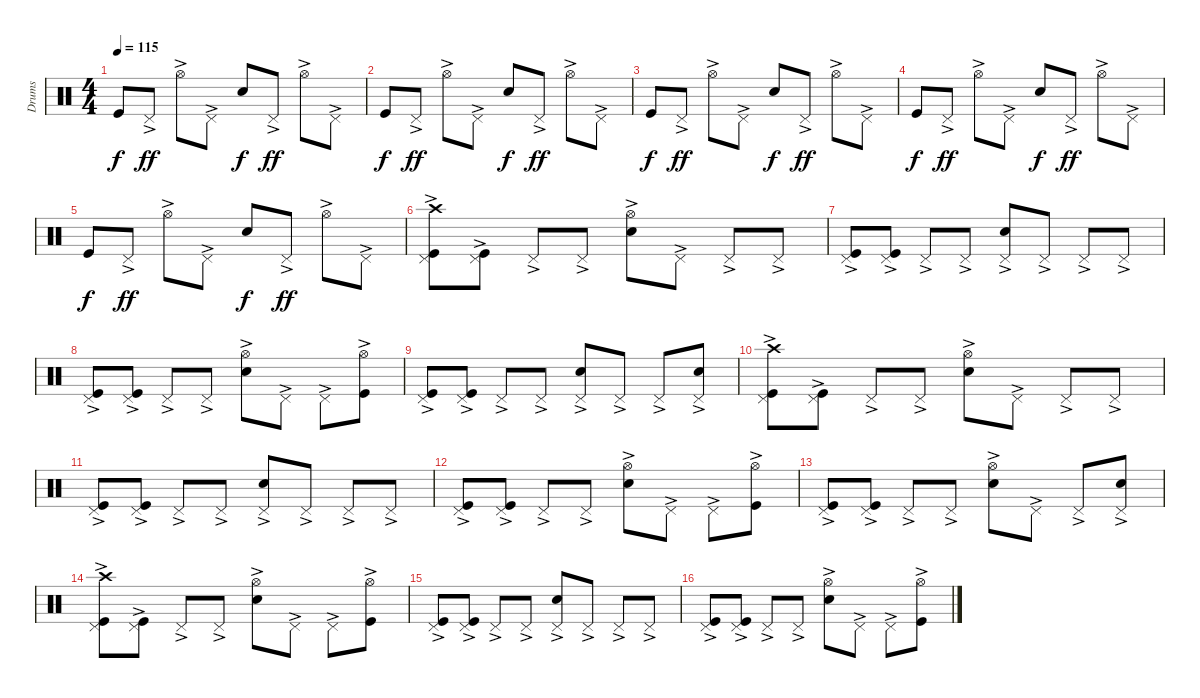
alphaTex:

\track ("Drums" "Drums") {instrument percussion}
\staff {score}
\articulation defaults
\ts (4 4)
\tempo 115
\clef neutral
\ks c "Kick (hit)".8{dy f} "Pedal Hi-Hat (hit)"{ac}.8{dy ff} "Hi-Hat (open)"{ac}.8 "Pedal Hi-Hat (hit)"{ac}.8 "Electric Snare (hit)".8{dy f} "Pedal Hi-Hat (hit)"{ac}.8{dy ff} "Hi-Hat (open)"{ac}.8 "Pedal Hi-Hat (hit)"{ac}.8
|
"Kick (hit)".8{dy f} "Pedal Hi-Hat (hit)"{ac}.8{dy ff} "Hi-Hat (open)"{ac}.8 "Pedal Hi-Hat (hit)"{ac}.8 "Electric Snare (hit)".8{dy f} "Pedal Hi-Hat (hit)"{ac}.8{dy ff} "Hi-Hat (open)"{ac}.8 "Pedal Hi-Hat (hit)"{ac}.8 |
"Kick (hit)".8{dy f} "Pedal Hi-Hat (hit)"{ac}.8{dy ff} "Hi-Hat (open)"{ac}.8 "Pedal Hi-Hat (hit)"{ac}.8 "Electric Snare (hit)".8{dy f} "Pedal Hi-Hat (hit)"{ac}.8{dy ff} "Hi-Hat (open)"{ac}.8 "Pedal Hi-Hat (hit)"{ac}.8 |
"Kick (hit)".8{dy f} "Pedal Hi-Hat (hit)"{ac}.8{dy ff} "Hi-Hat (open)"{ac}.8 "Pedal Hi-Hat (hit)"{ac}.8 "Electric Snare (hit)".8{dy f} "Pedal Hi-Hat (hit)"{ac}.8{dy ff} "Hi-Hat (open)"{ac}.8 "Pedal Hi-Hat (hit)"{ac}.8 |
"Kick (hit)".8{dy f} "Pedal Hi-Hat (hit)"{ac}.8{dy ff} "Hi-Hat (open)"{ac}.8 "Pedal Hi-Hat (hit)"{ac}.8 "Electric Snare (hit)".8{dy f} "Pedal Hi-Hat (hit)"{ac}.8{dy ff} "Hi-Hat (open)"{ac}.8 "Pedal Hi-Hat (hit)"{ac}.8 |
("Kick (hit)" "Pedal Hi-Hat (hit)"{ac} "Crash high (hit)"{ac}).8{volume 12} ("Kick (hit)" "Pedal Hi-Hat (hit)"{ac}).8 "Pedal Hi-Hat (hit)"{ac}.8 "Pedal Hi-Hat (hit)"{ac}.8 ("Hi-Hat (open)"{ac} "Electric Snare (hit)").8 "Pedal Hi-Hat (hit)"{ac}.8 "Pedal Hi-Hat (hit)"{ac}.8 "Pedal Hi-Hat (hit)"{ac}.8 |
("Kick (hit)" "Pedal Hi-Hat (hit)"{ac}).8 ("Kick (hit)" "Pedal Hi-Hat (hit)"{ac}).8 "Pedal Hi-Hat (hit)"{ac}.8 "Pedal Hi-Hat (hit)"{ac}.8 ("Pedal Hi-Hat (hit)"{ac} "Electric Snare (hit)").8 "Pedal Hi-Hat (hit)"{ac}.8 "Pedal Hi-Hat (hit)"{ac}.8 "Pedal Hi-Hat (hit)"{ac}.8 |
("Kick (hit)" "Pedal Hi-Hat (hit)"{ac}).8 ("Kick (hit)" "Pedal Hi-Hat (hit)"{ac}).8 "Pedal Hi-Hat (hit)"{ac}.8 "Pedal Hi-Hat (hit)"{ac}.8 ("Hi-Hat (open)"{ac} "Electric Snare (hit)").8 "Pedal Hi-Hat (hit)"{ac}.8 "Pedal Hi-Hat (hit)"{ac}.8 ("Kick (hit)" "Hi-Hat (open)"{ac}).8 |
("Kick (hit)" "Pedal Hi-Hat (hit)"{ac}).8 ("Kick (hit)" "Pedal Hi-Hat (hit)"{ac}).8 "Pedal Hi-Hat (hit)"{ac}.8 "Pedal Hi-Hat (hit)"{ac}.8 ("Pedal Hi-Hat (hit)"{ac} "Electric Snare (hit)").8 "Pedal Hi-Hat (hit)"{ac}.8 "Pedal Hi-Hat (hit)"{ac}.8 ("Pedal Hi-Hat (hit)"{ac} "Electric Snare (hit)").8 |
("Kick (hit)" "Pedal Hi-Hat (hit)"{ac} "Crash high (hit)"{ac}).8 ("Kick (hit)" "Pedal Hi-Hat (hit)"{ac}).8 "Pedal Hi-Hat (hit)"{ac}.8 "Pedal Hi-Hat (hit)"{ac}.8 ("Hi-Hat (open)"{ac} "Electric Snare (hit)").8 "Pedal Hi-Hat (hit)"{ac}.8 "Pedal Hi-Hat (hit)"{ac}.8 "Pedal Hi-Hat (hit)"{ac}.8 |
("Kick (hit)" "Pedal Hi-Hat (hit)"{ac}).8 ("Kick (hit)" "Pedal Hi-Hat (hit)"{ac}).8 "Pedal Hi-Hat (hit)"{ac}.8 "Pedal Hi-Hat (hit)"{ac}.8 ("Pedal Hi-Hat (hit)"{ac} "Electric Snare (hit)").8 "Pedal Hi-Hat (hit)"{ac}.8 "Pedal Hi-Hat (hit)"{ac}.8 "Pedal Hi-Hat (hit)"{ac}.8 |
("Kick (hit)" "Pedal Hi-Hat (hit)"{ac}).8 ("Kick (hit)" "Pedal Hi-Hat (hit)"{ac}).8 "Pedal Hi-Hat (hit)"{ac}.8 "Pedal Hi-Hat (hit)"{ac}.8 ("Hi-Hat (open)"{ac} "Electric Snare (hit)").8 "Pedal Hi-Hat (hit)"{ac}.8 "Pedal Hi-Hat (hit)"{ac}.8 ("Kick (hit)" "Hi-Hat (open)"{ac}).8 |
("Kick (hit)" "Pedal Hi-Hat (hit)"{ac}).8 ("Kick (hit)" "Pedal Hi-Hat (hit)"{ac}).8 "Pedal Hi-Hat (hit)"{ac}.8 "Pedal Hi-Hat (hit)"{ac}.8 ("Hi-Hat (open)"{ac} "Electric Snare (hit)").8 "Pedal Hi-Hat (hit)"{ac}.8 "Pedal Hi-Hat (hit)"{ac}.8 ("Pedal Hi-Hat (hit)"{ac} "Electric Snare (hit)").8 |
("Kick (hit)" "Pedal Hi-Hat (hit)"{ac} "Crash high (hit)").8 ("Kick (hit)" "Pedal Hi-Hat (hit)"{ac}).8 "Pedal Hi-Hat (hit)"{ac}.8 "Pedal Hi-Hat (hit)"{ac}.8 ("Hi-Hat (open)"{ac} "Electric Snare (hit)").8 "Pedal Hi-Hat (hit)"{ac}.8 "Pedal Hi-Hat (hit)"{ac}.8 ("Kick (hit)" "Hi-Hat (open)"{ac}).8 |
("Kick (hit)" "Pedal Hi-Hat (hit)"{ac}).8 ("Kick (hit)" "Pedal Hi-Hat (hit)"{ac}).8 "Pedal Hi-Hat (hit)"{ac}.8 "Pedal Hi-Hat (hit)"{ac}.8 ("Pedal Hi-Hat (hit)"{ac} "Electric Snare (hit)").8 "Pedal Hi-Hat (hit)"{ac}.8 "Pedal Hi-Hat (hit)"{ac}.8 "Pedal Hi-Hat (hit)"{ac}.8 |
("Kick (hit)" "Pedal Hi-Hat (hit)"{ac}).8 ("Kick (hit)" "Pedal Hi-Hat (hit)"{ac}).8 "Pedal Hi-Hat (hit)"{ac}.8 "Pedal Hi-Hat (hit)"{ac}.8 ("Hi-Hat (open)"{ac} "Electric Snare (hit)").8 "Pedal Hi-Hat (hit)"{ac}.8 "Pedal Hi-Hat (hit)"{ac}.8 ("Kick (hit)" "Hi-Hat (open)"{ac}).8
